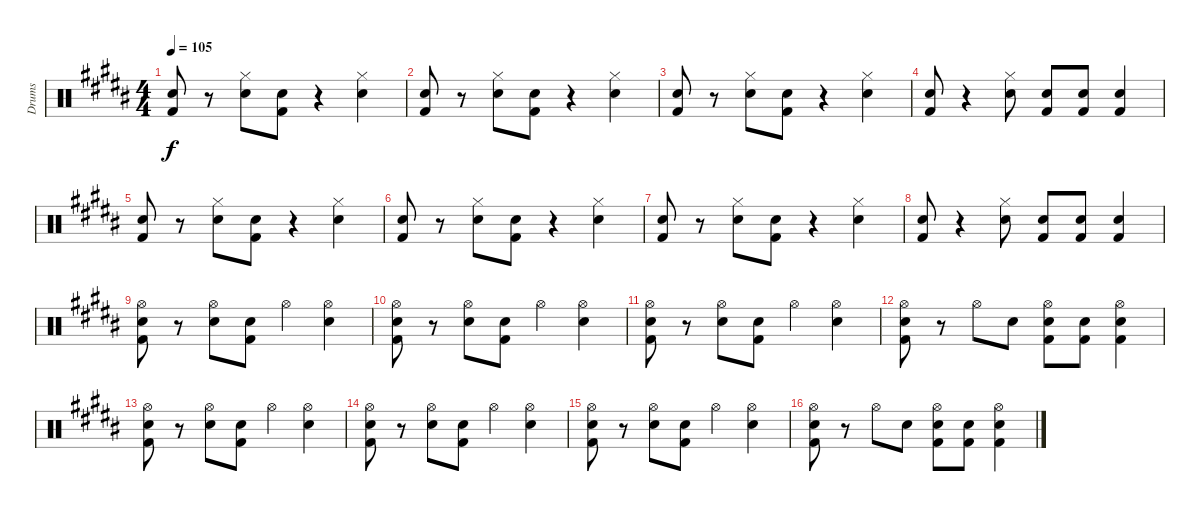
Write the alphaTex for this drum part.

\track ("Drums" "Drums") {instrument percussion}
\staff {score}
\articulation defaults
\ts (4 4)
\tempo 105
\clef neutral
\ks b
("Electric Snare (hit)" "Kick (hit) 2").8{dy f} r.8 ("Hi-Hat (closed)" "Electric Snare (hit)").8 ("Electric Snare (hit)" "Kick (hit) 2").8 r.4 ("Hi-Hat (closed)" "Electric Snare (hit)").4 |
("Electric Snare (hit)" "Kick (hit) 2").8 r.8 ("Hi-Hat (closed)" "Electric Snare (hit)").8 ("Electric Snare (hit)" "Kick (hit) 2").8 r.4 ("Hi-Hat (closed)" "Electric Snare (hit)").4 |
("Electric Snare (hit)" "Kick (hit) 2").8 r.8 ("Hi-Hat (closed)" "Electric Snare (hit)").8 ("Electric Snare (hit)" "Kick (hit) 2").8 r.4 ("Hi-Hat (closed)" "Electric Snare (hit)").4 |
("Electric Snare (hit)" "Kick (hit) 2").8 r.4 ("Hi-Hat (closed)" "Electric Snare (hit)").8 ("Electric Snare (hit)" "Kick (hit) 2").8 ("Electric Snare (hit)" "Kick (hit) 2").8 ("Electric Snare (hit)" "Kick (hit) 2").4 |
("Electric Snare (hit)" "Kick (hit) 2").8 r.8 ("Hi-Hat (closed)" "Electric Snare (hit)").8 ("Electric Snare (hit)" "Kick (hit) 2").8 r.4 ("Hi-Hat (closed)" "Electric Snare (hit)").4 |
("Electric Snare (hit)" "Kick (hit) 2").8 r.8 ("Hi-Hat (closed)" "Electric Snare (hit)").8 ("Electric Snare (hit)" "Kick (hit) 2").8 r.4 ("Hi-Hat (closed)" "Electric Snare (hit)").4 |
("Electric Snare (hit)" "Kick (hit) 2").8 r.8 ("Hi-Hat (closed)" "Electric Snare (hit)").8 ("Electric Snare (hit)" "Kick (hit) 2").8 r.4 ("Hi-Hat (closed)" "Electric Snare (hit)").4 |
("Electric Snare (hit)" "Kick (hit) 2").8 r.4 ("Hi-Hat (closed)" "Electric Snare (hit)").8 ("Electric Snare (hit)" "Kick (hit) 2").8 ("Electric Snare (hit)" "Kick (hit) 2").8 ("Electric Snare (hit)" "Kick (hit) 2").4 |
("Hi-Hat (open)" "Electric Snare (hit)" "Kick (hit) 2").8 r.8 ("Hi-Hat (open)" "Electric Snare (hit)").8 ("Electric Snare (hit)" "Kick (hit) 2").8 "Hi-Hat (open)".4 ("Hi-Hat (open)" "Electric Snare (hit)").4 |
("Hi-Hat (open)" "Electric Snare (hit)" "Kick (hit) 2").8 r.8 ("Hi-Hat (open)" "Electric Snare (hit)").8 ("Electric Snare (hit)" "Kick (hit) 2").8 "Hi-Hat (open)".4 ("Hi-Hat (open)" "Electric Snare (hit)").4 |
("Hi-Hat (open)" "Electric Snare (hit)" "Kick (hit) 2").8 r.8 ("Hi-Hat (open)" "Electric Snare (hit)").8 ("Electric Snare (hit)" "Kick (hit) 2").8 "Hi-Hat (open)".4 ("Hi-Hat (open)" "Electric Snare (hit)").4 |
("Hi-Hat (open)" "Electric Snare (hit)" "Kick (hit) 2").8 r.8 "Hi-Hat (open)".8 "Electric Snare (hit)".8 ("Hi-Hat (open)" "Electric Snare (hit)" "Kick (hit) 2").8 ("Electric Snare (hit)" "Kick (hit) 2").8 ("Hi-Hat (open)" "Electric Snare (hit)" "Kick (hit) 2").4 |
("Hi-Hat (open)" "Electric Snare (hit)" "Kick (hit) 2").8 r.8 ("Hi-Hat (open)" "Electric Snare (hit)").8 ("Electric Snare (hit)" "Kick (hit) 2").8 "Hi-Hat (open)".4 ("Hi-Hat (open)" "Electric Snare (hit)").4 |
("Hi-Hat (open)" "Electric Snare (hit)" "Kick (hit) 2").8 r.8 ("Hi-Hat (open)" "Electric Snare (hit)").8 ("Electric Snare (hit)" "Kick (hit) 2").8 "Hi-Hat (open)".4 ("Hi-Hat (open)" "Electric Snare (hit)").4 |
("Hi-Hat (open)" "Electric Snare (hit)" "Kick (hit) 2").8 r.8 ("Hi-Hat (open)" "Electric Snare (hit)").8 ("Electric Snare (hit)" "Kick (hit) 2").8 "Hi-Hat (open)".4 ("Hi-Hat (open)" "Electric Snare (hit)").4 |
("Hi-Hat (open)" "Electric Snare (hit)" "Kick (hit) 2").8 r.8 "Hi-Hat (open)".8 "Electric Snare (hit)".8 ("Hi-Hat (open)" "Electric Snare (hit)" "Kick (hit) 2").8 ("Electric Snare (hit)" "Kick (hit) 2").8 ("Hi-Hat (open)" "Electric Snare (hit)" "Kick (hit) 2").4
